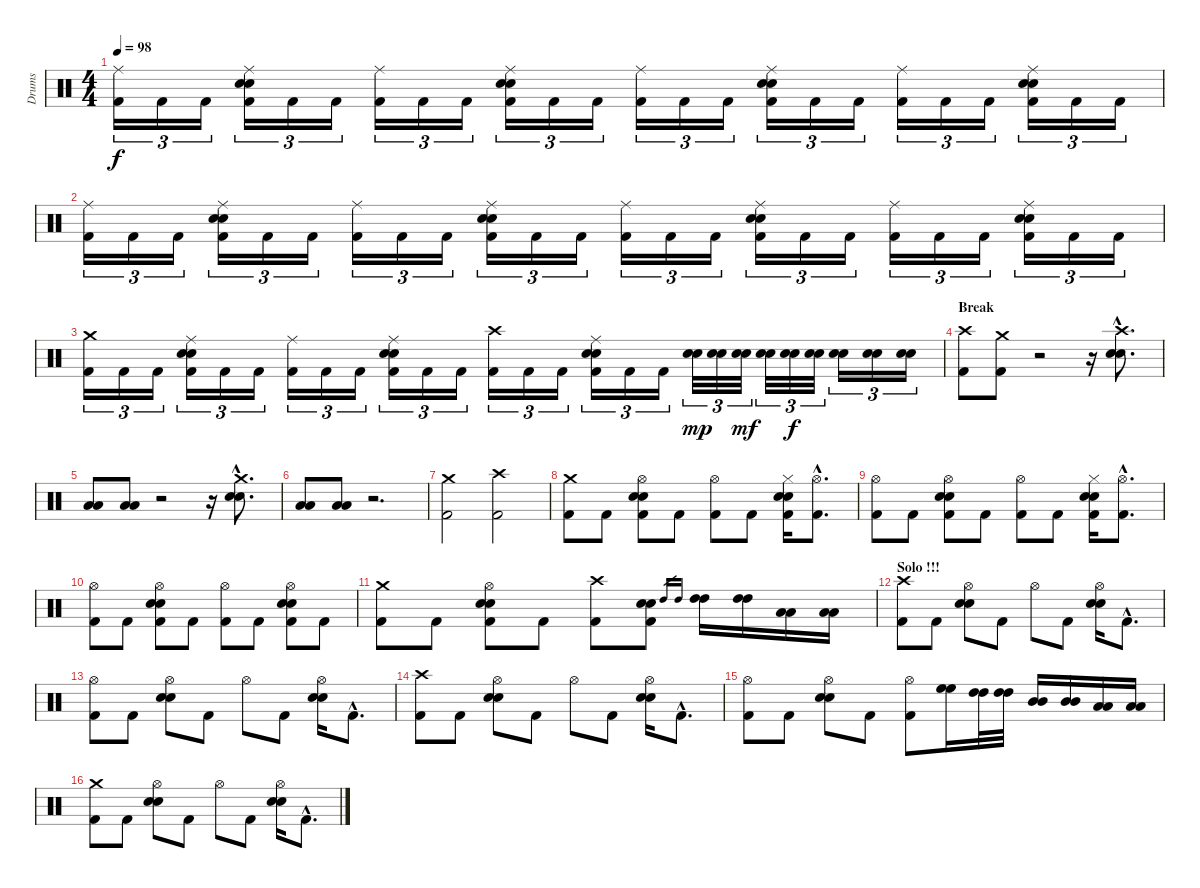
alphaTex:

\track ("Drums" "Drums") {instrument percussion}
\staff {score}
\articulation defaults
\ts (4 4)
\tempo 98
\clef neutral
\ks c
("Ride (middle)" "Kick (hit) 2").16{tu (3 2) dy f} "Kick (hit) 2".16{tu (3 2)} "Kick (hit) 2".16{tu (3 2)} ("Ride (middle)" "Snare (hit) 2" "Electric Snare (hit)" "Kick (hit) 2").16{tu (3 2)} "Kick (hit) 2".16{tu (3 2)} "Kick (hit) 2".16{tu (3 2)} ("Ride (middle)" "Kick (hit) 2").16{tu (3 2)} "Kick (hit) 2".16{tu (3 2)} "Kick (hit) 2".16{tu (3 2)} ("Ride (middle)" "Snare (hit) 2" "Electric Snare (hit)" "Kick (hit) 2").16{tu (3 2)} "Kick (hit) 2".16{tu (3 2)} "Kick (hit) 2".16{tu (3 2)} ("Ride (middle)" "Kick (hit) 2").16{tu (3 2)} "Kick (hit) 2".16{tu (3 2)} "Kick (hit) 2".16{tu (3 2)} ("Ride (middle)" "Snare (hit) 2" "Electric Snare (hit)" "Kick (hit) 2").16{tu (3 2)} "Kick (hit) 2".16{tu (3 2)} "Kick (hit) 2".16{tu (3 2)} ("Ride (middle)" "Kick (hit) 2").16{tu (3 2)} "Kick (hit) 2".16{tu (3 2)} "Kick (hit) 2".16{tu (3 2)} ("Ride (middle)" "Snare (hit) 2" "Electric Snare (hit)" "Kick (hit) 2").16{tu (3 2)} "Kick (hit) 2".16{tu (3 2)} "Kick (hit) 2".16{tu (3 2)} |
("Ride (middle)" "Kick (hit) 2").16{tu (3 2)} "Kick (hit) 2".16{tu (3 2)} "Kick (hit) 2".16{tu (3 2)} ("Ride (middle)" "Snare (hit) 2" "Electric Snare (hit)" "Kick (hit) 2").16{tu (3 2)} "Kick (hit) 2".16{tu (3 2)} "Kick (hit) 2".16{tu (3 2)} ("Ride (middle)" "Kick (hit) 2").16{tu (3 2)} "Kick (hit) 2".16{tu (3 2)} "Kick (hit) 2".16{tu (3 2)} ("Ride (middle)" "Snare (hit) 2" "Electric Snare (hit)" "Kick (hit) 2").16{tu (3 2)} "Kick (hit) 2".16{tu (3 2)} "Kick (hit) 2".16{tu (3 2)} ("Ride (middle)" "Kick (hit) 2").16{tu (3 2)} "Kick (hit) 2".16{tu (3 2)} "Kick (hit) 2".16{tu (3 2)} ("Ride (middle)" "Snare (hit) 2" "Electric Snare (hit)" "Kick (hit) 2").16{tu (3 2)} "Kick (hit) 2".16{tu (3 2)} "Kick (hit) 2".16{tu (3 2)} ("Ride (middle)" "Kick (hit) 2").16{tu (3 2)} "Kick (hit) 2".16{tu (3 2)} "Kick (hit) 2".16{tu (3 2)} ("Ride (middle)" "Snare (hit) 2" "Electric Snare (hit)" "Kick (hit) 2").16{tu (3 2)} "Kick (hit) 2".16{tu (3 2)} "Kick (hit) 2".16{tu (3 2)} |
("Crash medium (hit)" "Kick (hit) 2").16{tu (3 2)} "Kick (hit) 2".16{tu (3 2)} "Kick (hit) 2".16{tu (3 2)} ("Ride (middle)" "Snare (hit) 2" "Electric Snare (hit)" "Kick (hit) 2").16{tu (3 2)} "Kick (hit) 2".16{tu (3 2)} "Kick (hit) 2".16{tu (3 2)} ("Ride (middle)" "Kick (hit) 2").16{tu (3 2)} "Kick (hit) 2".16{tu (3 2)} "Kick (hit) 2".16{tu (3 2)} ("Ride (middle)" "Snare (hit) 2" "Electric Snare (hit)" "Kick (hit) 2").16{tu (3 2)} "Kick (hit) 2".16{tu (3 2)} "Kick (hit) 2".16{tu (3 2)} ("Crash high (hit)" "Kick (hit) 2").16{tu (3 2)} "Kick (hit) 2".16{tu (3 2)} "Kick (hit) 2".16{tu (3 2)} ("Ride (middle)" "Snare (hit) 2" "Electric Snare (hit)" "Kick (hit) 2").16{tu (3 2)} "Kick (hit) 2".16{tu (3 2)} "Kick (hit) 2".16{tu (3 2)} ("Snare (hit) 2" "Electric Snare (hit)").32{tu (3 2) dy mp} ("Snare (hit) 2" "Electric Snare (hit)").32{tu (3 2)} ("Snare (hit) 2" "Electric Snare (hit)").32{tu (3 2) dy mf} ("Snare (hit) 2" "Electric Snare (hit)").32{tu (3 2)} ("Snare (hit) 2" "Electric Snare (hit)").32{tu (3 2) dy f} ("Snare (hit) 2" "Electric Snare (hit)").32{tu (3 2)} ("Snare (hit) 2" "Electric Snare (hit)").16{tu (3 2)} ("Snare (hit) 2" "Electric Snare (hit)").16{tu (3 2)} ("Snare (hit) 2" "Electric Snare (hit)").16{tu (3 2)} |
\section ("" "Break")
("Crash high (hit)" "Kick (hit) 2").8 ("Crash medium (hit)" "Kick (hit) 2").8 r.2 r.16 ("Crash high (hit)"{hac} "Snare (hit) 2"{hac} "Electric Snare (hit)"{hac}).8{d} |
("Low Tom (hit)" "Low Floor Tom (hit)").8 ("Low Tom (hit)" "Low Floor Tom (hit)").8 r.2 r.16 ("Crash medium (hit)"{hac} "Snare (hit) 2"{hac} "Electric Snare (hit)"{hac}).8{d} |
("Low Tom (hit)" "Low Floor Tom (hit)").8 ("Low Tom (hit)" "Low Floor Tom (hit)").8 r.2{d} |
("Crash medium (hit)" "Kick (hit) 2").2 ("Crash high (hit)" "Kick (hit) 2").2 |
("Crash medium (hit)" "Kick (hit) 2").8 "Kick (hit) 2".8 ("Hi-Hat (open)" "Snare (hit) 2" "Electric Snare (hit)" "Kick (hit) 2").8 "Kick (hit) 2".8 ("Hi-Hat (open)" "Kick (hit) 2").8 "Kick (hit) 2".8 ("Hi-Hat (closed)" "Snare (hit) 2" "Electric Snare (hit)" "Kick (hit) 2").16 ("Hi-Hat (open)"{hac} "Kick (hit) 2"{hac}).8{d} |
("Hi-Hat (open)" "Kick (hit) 2").8 "Kick (hit) 2".8 ("Hi-Hat (open)" "Snare (hit) 2" "Electric Snare (hit)" "Kick (hit) 2").8 "Kick (hit) 2".8 ("Hi-Hat (open)" "Kick (hit) 2").8 "Kick (hit) 2".8 ("Hi-Hat (closed)" "Snare (hit) 2" "Electric Snare (hit)" "Kick (hit) 2").16 ("Hi-Hat (open)"{hac} "Kick (hit) 2"{hac}).8{d} |
("Hi-Hat (open)" "Kick (hit) 2").8 "Kick (hit) 2".8 ("Hi-Hat (open)" "Snare (hit) 2" "Electric Snare (hit)" "Kick (hit) 2").8 "Kick (hit) 2".8 ("Hi-Hat (open)" "Kick (hit) 2").8 "Kick (hit) 2".8 ("Hi-Hat (open)" "Snare (hit) 2" "Electric Snare (hit)" "Kick (hit) 2").8 "Kick (hit) 2".8 |
("Crash medium (hit)" "Kick (hit) 2").8 "Kick (hit) 2".8 ("Hi-Hat (open)" "Snare (hit) 2" "Electric Snare (hit)" "Kick (hit) 2").8 "Kick (hit) 2".8 ("Crash high (hit)" "Kick (hit) 2").8 ("Snare (hit) 2" "Electric Snare (hit)" "Kick (hit) 2").8 "High Tom (hit)".16{gr} "High Tom (hit)".16{gr} ("High Tom (hit)" "High Tom (hit)").16 ("High Tom (hit)" "High Tom (hit)").16 ("Low Tom (hit)" "Low Tom (hit)").16 ("Low Tom (hit)" "Low Tom (hit)").16 |
\section ("" "Solo !!!")
("Crash high (hit)" "Kick (hit) 2").8 "Kick (hit) 2".8 ("Hi-Hat (open)" "Snare (hit) 2" "Electric Snare (hit)").8 "Kick (hit) 2".8 "Hi-Hat (open)".8 "Kick (hit) 2".8 ("Hi-Hat (open)" "Snare (hit) 2" "Electric Snare (hit)").16 "Kick (hit) 2"{hac}.8{d} |
("Hi-Hat (open)" "Kick (hit) 2").8 "Kick (hit) 2".8 ("Hi-Hat (open)" "Snare (hit) 2" "Electric Snare (hit)").8 "Kick (hit) 2".8 "Hi-Hat (open)".8 "Kick (hit) 2".8 ("Hi-Hat (open)" "Snare (hit) 2" "Electric Snare (hit)").16 "Kick (hit) 2"{hac}.8{d} |
("Crash high (hit)" "Kick (hit) 2").8 "Kick (hit) 2".8 ("Hi-Hat (open)" "Snare (hit) 2" "Electric Snare (hit)").8 "Kick (hit) 2".8 "Hi-Hat (open)".8 "Kick (hit) 2".8 ("Hi-Hat (open)" "Snare (hit) 2" "Electric Snare (hit)").16 "Kick (hit) 2"{hac}.8{d} |
("Hi-Hat (open)" "Kick (hit) 2").8 "Kick (hit) 2".8 ("Hi-Hat (open)" "Snare (hit) 2" "Electric Snare (hit)").8 "Kick (hit) 2".8 ("Hi-Hat (open)" "Kick (hit) 2").8 ("High Floor Tom (hit)" "High Floor Tom (hit)").16 ("High Tom (hit)" "High Tom (hit)").32 ("High Tom (hit)" "High Tom (hit)").32 ("Mid Tom (hit)" "Mid Tom (hit)").16 ("Mid Tom (hit)" "Mid Tom (hit)").16 ("Low Tom (hit)" "Low Tom (hit)").16 ("Low Tom (hit)" "Low Tom (hit)").16 |
("Crash medium (hit)" "Kick (hit) 2").8 "Kick (hit) 2".8 ("Hi-Hat (open)" "Snare (hit) 2" "Electric Snare (hit)").8 "Kick (hit) 2".8 "Hi-Hat (open)".8 "Kick (hit) 2".8 ("Hi-Hat (open)" "Snare (hit) 2" "Electric Snare (hit)").16 "Kick (hit) 2"{hac}.8{d}
